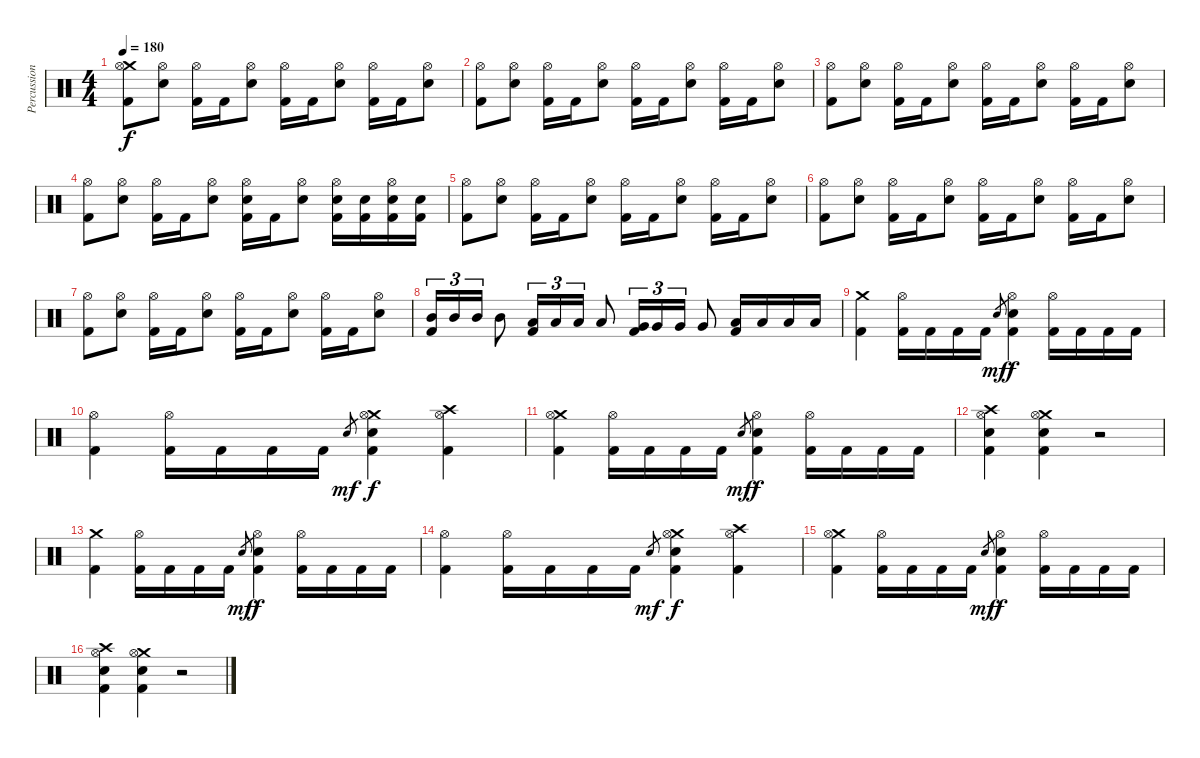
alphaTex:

\track ("Percussion" "Percussion") {instrument percussion}
\staff {score}
\articulation defaults
\ts (4 4)
\tempo 180
\clef neutral
\ks c
("Crash medium (hit)" "Hi-Hat (open)" "Kick (hit) 2").8{dy f} ("Hi-Hat (open)" "Snare (hit) 2").8 ("Hi-Hat (open)" "Kick (hit) 2").16 "Kick (hit) 2".16 ("Hi-Hat (open)" "Snare (hit) 2").8 ("Hi-Hat (open)" "Kick (hit) 2").16 "Kick (hit) 2".16 ("Hi-Hat (open)" "Snare (hit) 2").8 ("Hi-Hat (open)" "Kick (hit) 2").16 "Kick (hit) 2".16 ("Hi-Hat (open)" "Snare (hit) 2").8 |
("Hi-Hat (open)" "Kick (hit) 2").8 ("Hi-Hat (open)" "Snare (hit) 2").8 ("Hi-Hat (open)" "Kick (hit) 2").16 "Kick (hit) 2".16 ("Hi-Hat (open)" "Snare (hit) 2").8 ("Hi-Hat (open)" "Kick (hit) 2").16 "Kick (hit) 2".16 ("Hi-Hat (open)" "Snare (hit) 2").8 ("Hi-Hat (open)" "Kick (hit) 2").16 "Kick (hit) 2".16 ("Hi-Hat (open)" "Snare (hit) 2").8 |
("Hi-Hat (open)" "Kick (hit) 2").8 ("Hi-Hat (open)" "Snare (hit) 2").8 ("Hi-Hat (open)" "Kick (hit) 2").16 "Kick (hit) 2".16 ("Hi-Hat (open)" "Snare (hit) 2").8 ("Hi-Hat (open)" "Kick (hit) 2").16 "Kick (hit) 2".16 ("Hi-Hat (open)" "Snare (hit) 2").8 ("Hi-Hat (open)" "Kick (hit) 2").16 "Kick (hit) 2".16 ("Hi-Hat (open)" "Snare (hit) 2").8 |
("Hi-Hat (open)" "Kick (hit) 2").8 ("Hi-Hat (open)" "Snare (hit) 2").8 ("Hi-Hat (open)" "Kick (hit) 2").16 "Kick (hit) 2".16 ("Hi-Hat (open)" "Snare (hit) 2").8 ("Hi-Hat (open)" "Snare (hit) 2" "Kick (hit) 2").16 "Kick (hit) 2".16 ("Hi-Hat (open)" "Snare (hit) 2").8 ("Hi-Hat (open)" "Snare (hit) 2" "Kick (hit) 2").16 ("Snare (hit) 2" "Kick (hit) 2").16 ("Hi-Hat (open)" "Snare (hit) 2" "Kick (hit) 2").16 ("Snare (hit) 2" "Kick (hit) 2").16 |
("Hi-Hat (open)" "Kick (hit) 2").8 ("Hi-Hat (open)" "Snare (hit) 2").8 ("Hi-Hat (open)" "Kick (hit) 2").16 "Kick (hit) 2".16 ("Hi-Hat (open)" "Snare (hit) 2").8 ("Hi-Hat (open)" "Kick (hit) 2").16 "Kick (hit) 2".16 ("Hi-Hat (open)" "Snare (hit) 2").8 ("Hi-Hat (open)" "Kick (hit) 2").16 "Kick (hit) 2".16 ("Hi-Hat (open)" "Snare (hit) 2").8 |
("Hi-Hat (open)" "Kick (hit) 2").8 ("Hi-Hat (open)" "Snare (hit) 2").8 ("Hi-Hat (open)" "Kick (hit) 2").16 "Kick (hit) 2".16 ("Hi-Hat (open)" "Snare (hit) 2").8 ("Hi-Hat (open)" "Kick (hit) 2").16 "Kick (hit) 2".16 ("Hi-Hat (open)" "Snare (hit) 2").8 ("Hi-Hat (open)" "Kick (hit) 2").16 "Kick (hit) 2".16 ("Hi-Hat (open)" "Snare (hit) 2").8 |
("Hi-Hat (open)" "Kick (hit) 2").8 ("Hi-Hat (open)" "Snare (hit) 2").8 ("Hi-Hat (open)" "Kick (hit) 2").16 "Kick (hit) 2".16 ("Hi-Hat (open)" "Snare (hit) 2").8 ("Hi-Hat (open)" "Kick (hit) 2").16 "Kick (hit) 2".16 ("Hi-Hat (open)" "Snare (hit) 2").8 ("Hi-Hat (open)" "Kick (hit) 2").16 "Kick (hit) 2".16 ("Hi-Hat (open)" "Snare (hit) 2").8 |
("Mid Tom (hit)" "Kick (hit) 2").16{tu (3 2)} "Mid Tom (hit)".16{tu (3 2)} "Mid Tom (hit)".16{tu (3 2)} "Mid Tom (hit)".8 ("Low Tom (hit)" "Kick (hit) 2").16{tu (3 2)} "Low Tom (hit)".16{tu (3 2)} "Low Tom (hit)".16{tu (3 2)} "Low Tom (hit)".8 ("Very Low Tom (hit)" "Kick (hit) 2").16{tu (3 2)} "Very Low Tom (hit)".16{tu (3 2)} "Very Low Tom (hit)".16{tu (3 2)} "Very Low Tom (hit)".8 ("Low Floor Tom (hit)" "Kick (hit) 2").16 "Low Floor Tom (hit)".16 "Low Floor Tom (hit)".16 "Low Floor Tom (hit)".16 |
("Crash medium (hit)" "Kick (hit) 2").4 ("Hi-Hat (open)" "Kick (hit) 2").16 "Kick (hit) 2".16 "Kick (hit) 2".16 "Kick (hit) 2".16 "Snare (hit)".8{gr dy mf} ("Hi-Hat (open)" "Snare (hit) 2" "Kick (hit) 2").4{dy f} ("Hi-Hat (open)" "Kick (hit) 2").16 "Kick (hit) 2".16 "Kick (hit) 2".16 "Kick (hit) 2".16 |
("Hi-Hat (open)" "Kick (hit) 2").4 ("Hi-Hat (open)" "Kick (hit) 2").16 "Kick (hit) 2".16 "Kick (hit) 2".16 "Kick (hit) 2".16 "Snare (hit)".8{gr dy mf} ("Crash medium (hit)" "Hi-Hat (open)" "Snare (hit) 2" "Kick (hit) 2").4{dy f} ("Crash high (hit)" "Hi-Hat (open)" "Kick (hit) 2").4 |
("Crash medium (hit)" "Hi-Hat (open)" "Kick (hit) 2").4 ("Hi-Hat (open)" "Kick (hit) 2").16 "Kick (hit) 2".16 "Kick (hit) 2".16 "Kick (hit) 2".16 "Snare (hit)".8{gr dy mf} ("Hi-Hat (open)" "Snare (hit) 2" "Kick (hit) 2").4{dy f} ("Hi-Hat (open)" "Kick (hit) 2").16 "Kick (hit) 2".16 "Kick (hit) 2".16 "Kick (hit) 2".16 |
("Crash high (hit)" "Hi-Hat (open)" "Snare (hit) 2" "Kick (hit) 2").4 ("Crash medium (hit)" "Hi-Hat (open)" "Snare (hit) 2" "Kick (hit) 2").4 r.2 |
("Crash medium (hit)" "Kick (hit) 2").4 ("Hi-Hat (open)" "Kick (hit) 2").16 "Kick (hit) 2".16 "Kick (hit) 2".16 "Kick (hit) 2".16 "Snare (hit)".8{gr dy mf} ("Hi-Hat (open)" "Snare (hit) 2" "Kick (hit) 2").4{dy f} ("Hi-Hat (open)" "Kick (hit) 2").16 "Kick (hit) 2".16 "Kick (hit) 2".16 "Kick (hit) 2".16 |
("Hi-Hat (open)" "Kick (hit) 2").4 ("Hi-Hat (open)" "Kick (hit) 2").16 "Kick (hit) 2".16 "Kick (hit) 2".16 "Kick (hit) 2".16 "Snare (hit)".8{gr dy mf} ("Crash medium (hit)" "Hi-Hat (open)" "Snare (hit) 2" "Kick (hit) 2").4{dy f} ("Crash high (hit)" "Hi-Hat (open)" "Kick (hit) 2").4 |
("Crash medium (hit)" "Hi-Hat (open)" "Kick (hit) 2").4 ("Hi-Hat (open)" "Kick (hit) 2").16 "Kick (hit) 2".16 "Kick (hit) 2".16 "Kick (hit) 2".16 "Snare (hit)".8{gr dy mf} ("Hi-Hat (open)" "Snare (hit) 2" "Kick (hit) 2").4{dy f} ("Hi-Hat (open)" "Kick (hit) 2").16 "Kick (hit) 2".16 "Kick (hit) 2".16 "Kick (hit) 2".16 |
("Crash high (hit)" "Hi-Hat (open)" "Snare (hit) 2" "Kick (hit) 2").4 ("Crash medium (hit)" "Hi-Hat (open)" "Snare (hit) 2" "Kick (hit) 2").4 r.2
